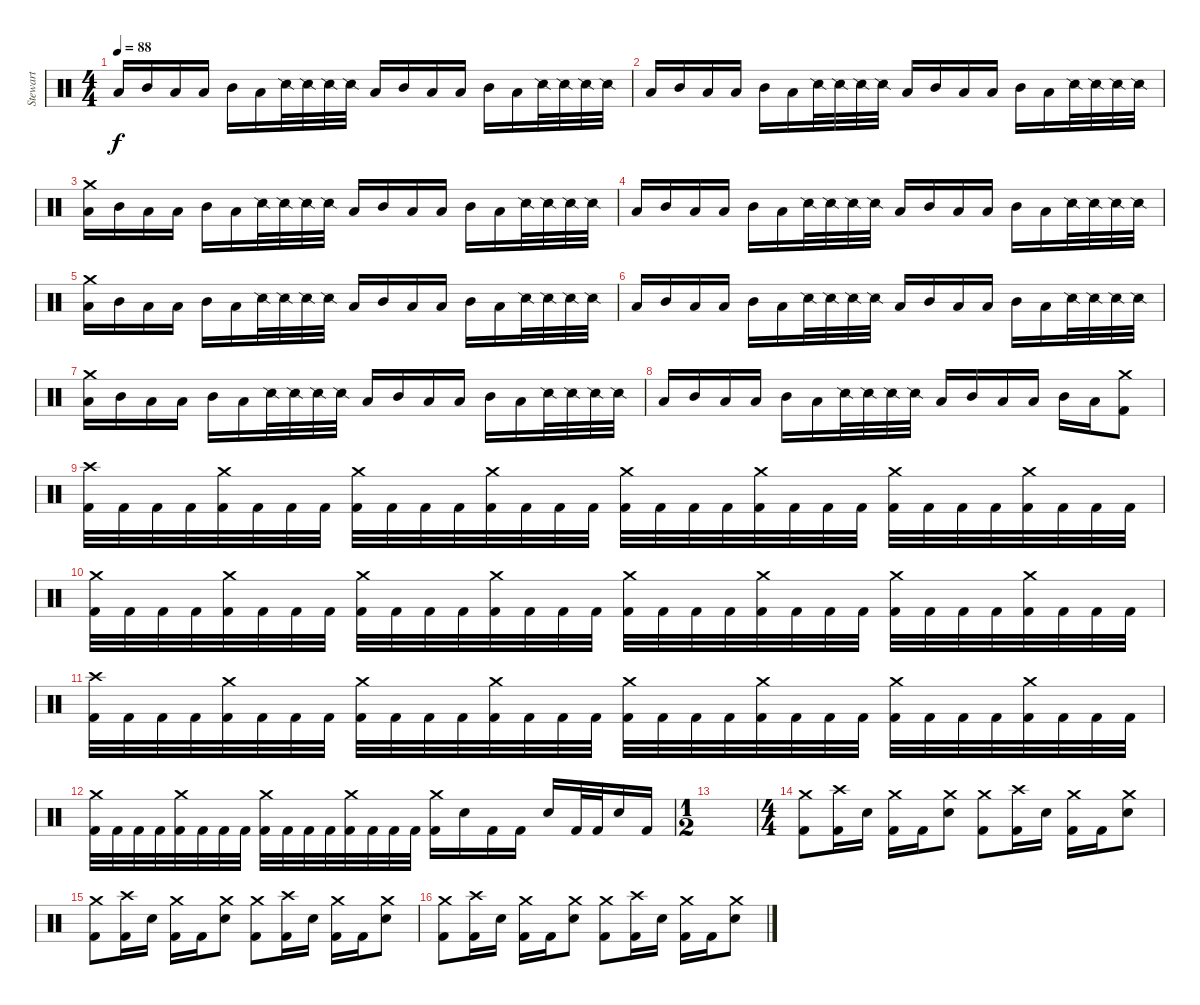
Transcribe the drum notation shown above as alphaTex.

\track ("Stewart" "Stewart") {instrument percussion}
\staff {score}
\articulation defaults
\ts (4 4)
\tempo 88
\clef neutral
\ks c "Low Tom (hit)".16{dy f} "Mid Tom (hit)".16 "Low Tom (hit)".16 "Low Tom (hit)".16 "Mid Tom (hit)".16 "Low Tom (hit)".16 "Snare (side stick) 2".32 "Snare (side stick) 2".32 "Snare (side stick) 2".32 "Snare (side stick) 2".32 "Low Tom (hit)".16 "Mid Tom (hit)".16 "Low Tom (hit)".16 "Low Tom (hit)".16 "Mid Tom (hit)".16 "Low Tom (hit)".16 "Snare (side stick) 2".32 "Snare (side stick) 2".32 "Snare (side stick) 2".32 "Snare (side stick) 2".32
|
"Low Tom (hit)".16 "Mid Tom (hit)".16 "Low Tom (hit)".16 "Low Tom (hit)".16 "Mid Tom (hit)".16 "Low Tom (hit)".16 "Snare (side stick) 2".32 "Snare (side stick) 2".32 "Snare (side stick) 2".32 "Snare (side stick) 2".32 "Low Tom (hit)".16 "Mid Tom (hit)".16 "Low Tom (hit)".16 "Low Tom (hit)".16 "Mid Tom (hit)".16 "Low Tom (hit)".16 "Snare (side stick) 2".32 "Snare (side stick) 2".32 "Snare (side stick) 2".32 "Snare (side stick) 2".32 |
("Crash medium (hit)" "Low Tom (hit)").16 "Mid Tom (hit)".16 "Low Tom (hit)".16 "Low Tom (hit)".16 "Mid Tom (hit)".16 "Low Tom (hit)".16 "Snare (side stick) 2".32 "Snare (side stick) 2".32 "Snare (side stick) 2".32 "Snare (side stick) 2".32 "Low Tom (hit)".16 "Mid Tom (hit)".16 "Low Tom (hit)".16 "Low Tom (hit)".16 "Mid Tom (hit)".16 "Low Tom (hit)".16 "Snare (side stick) 2".32 "Snare (side stick) 2".32 "Snare (side stick) 2".32 "Snare (side stick) 2".32 |
"Low Tom (hit)".16 "Mid Tom (hit)".16 "Low Tom (hit)".16 "Low Tom (hit)".16 "Mid Tom (hit)".16 "Low Tom (hit)".16 "Snare (side stick) 2".32 "Snare (side stick) 2".32 "Snare (side stick) 2".32 "Snare (side stick) 2".32 "Low Tom (hit)".16 "Mid Tom (hit)".16 "Low Tom (hit)".16 "Low Tom (hit)".16 "Mid Tom (hit)".16 "Low Tom (hit)".16 "Snare (side stick) 2".32 "Snare (side stick) 2".32 "Snare (side stick) 2".32 "Snare (side stick) 2".32 |
("Crash medium (hit)" "Low Tom (hit)").16 "Mid Tom (hit)".16 "Low Tom (hit)".16 "Low Tom (hit)".16 "Mid Tom (hit)".16 "Low Tom (hit)".16 "Snare (side stick) 2".32 "Snare (side stick) 2".32 "Snare (side stick) 2".32 "Snare (side stick) 2".32 "Low Tom (hit)".16 "Mid Tom (hit)".16 "Low Tom (hit)".16 "Low Tom (hit)".16 "Mid Tom (hit)".16 "Low Tom (hit)".16 "Snare (side stick) 2".32 "Snare (side stick) 2".32 "Snare (side stick) 2".32 "Snare (side stick) 2".32 |
"Low Tom (hit)".16 "Mid Tom (hit)".16 "Low Tom (hit)".16 "Low Tom (hit)".16 "Mid Tom (hit)".16 "Low Tom (hit)".16 "Snare (side stick) 2".32 "Snare (side stick) 2".32 "Snare (side stick) 2".32 "Snare (side stick) 2".32 "Low Tom (hit)".16 "Mid Tom (hit)".16 "Low Tom (hit)".16 "Low Tom (hit)".16 "Mid Tom (hit)".16 "Low Tom (hit)".16 "Snare (side stick) 2".32 "Snare (side stick) 2".32 "Snare (side stick) 2".32 "Snare (side stick) 2".32 |
("Crash medium (hit)" "Low Tom (hit)").16 "Mid Tom (hit)".16 "Low Tom (hit)".16 "Low Tom (hit)".16 "Mid Tom (hit)".16 "Low Tom (hit)".16 "Snare (side stick) 2".32 "Snare (side stick) 2".32 "Snare (side stick) 2".32 "Snare (side stick) 2".32 "Low Tom (hit)".16 "Mid Tom (hit)".16 "Low Tom (hit)".16 "Low Tom (hit)".16 "Mid Tom (hit)".16 "Low Tom (hit)".16 "Snare (side stick) 2".32 "Snare (side stick) 2".32 "Snare (side stick) 2".32 "Snare (side stick) 2".32 |
"Low Tom (hit)".16 "Mid Tom (hit)".16 "Low Tom (hit)".16 "Low Tom (hit)".16 "Mid Tom (hit)".16 "Low Tom (hit)".16 "Snare (side stick) 2".32 "Snare (side stick) 2".32 "Snare (side stick) 2".32 "Snare (side stick) 2".32 "Low Tom (hit)".16 "Mid Tom (hit)".16 "Low Tom (hit)".16 "Low Tom (hit)".16 "Mid Tom (hit)".16 "Low Tom (hit)".16 ("Crash medium (hit)" "Kick (hit) 2").8 |
("Crash high (hit)" "Kick (hit) 2").32 "Kick (hit) 2".32 "Kick (hit) 2".32 "Kick (hit) 2".32 ("Crash medium (hit)" "Kick (hit) 2").32 "Kick (hit) 2".32 "Kick (hit) 2".32 "Kick (hit) 2".32 ("Crash medium (hit)" "Kick (hit) 2").32 "Kick (hit) 2".32 "Kick (hit) 2".32 "Kick (hit) 2".32 ("Crash medium (hit)" "Kick (hit) 2").32 "Kick (hit) 2".32 "Kick (hit) 2".32 "Kick (hit) 2".32 ("Crash medium (hit)" "Kick (hit) 2").32 "Kick (hit) 2".32 "Kick (hit) 2".32 "Kick (hit) 2".32 ("Crash medium (hit)" "Kick (hit) 2").32 "Kick (hit) 2".32 "Kick (hit) 2".32 "Kick (hit) 2".32 ("Crash medium (hit)" "Kick (hit) 2").32 "Kick (hit) 2".32 "Kick (hit) 2".32 "Kick (hit) 2".32 ("Crash medium (hit)" "Kick (hit) 2").32 "Kick (hit) 2".32 "Kick (hit) 2".32 "Kick (hit) 2".32 |
("Crash medium (hit)" "Kick (hit) 2").32 "Kick (hit) 2".32 "Kick (hit) 2".32 "Kick (hit) 2".32 ("Crash medium (hit)" "Kick (hit) 2").32 "Kick (hit) 2".32 "Kick (hit) 2".32 "Kick (hit) 2".32 ("Crash medium (hit)" "Kick (hit) 2").32 "Kick (hit) 2".32 "Kick (hit) 2".32 "Kick (hit) 2".32 ("Crash medium (hit)" "Kick (hit) 2").32 "Kick (hit) 2".32 "Kick (hit) 2".32 "Kick (hit) 2".32 ("Crash medium (hit)" "Kick (hit) 2").32 "Kick (hit) 2".32 "Kick (hit) 2".32 "Kick (hit) 2".32 ("Crash medium (hit)" "Kick (hit) 2").32 "Kick (hit) 2".32 "Kick (hit) 2".32 "Kick (hit) 2".32 ("Crash medium (hit)" "Kick (hit) 2").32 "Kick (hit) 2".32 "Kick (hit) 2".32 "Kick (hit) 2".32 ("Crash medium (hit)" "Kick (hit) 2").32 "Kick (hit) 2".32 "Kick (hit) 2".32 "Kick (hit) 2".32 |
("Crash high (hit)" "Kick (hit) 2").32 "Kick (hit) 2".32 "Kick (hit) 2".32 "Kick (hit) 2".32 ("Crash medium (hit)" "Kick (hit) 2").32 "Kick (hit) 2".32 "Kick (hit) 2".32 "Kick (hit) 2".32 ("Crash medium (hit)" "Kick (hit) 2").32 "Kick (hit) 2".32 "Kick (hit) 2".32 "Kick (hit) 2".32 ("Crash medium (hit)" "Kick (hit) 2").32 "Kick (hit) 2".32 "Kick (hit) 2".32 "Kick (hit) 2".32 ("Crash medium (hit)" "Kick (hit) 2").32 "Kick (hit) 2".32 "Kick (hit) 2".32 "Kick (hit) 2".32 ("Crash medium (hit)" "Kick (hit) 2").32 "Kick (hit) 2".32 "Kick (hit) 2".32 "Kick (hit) 2".32 ("Crash medium (hit)" "Kick (hit) 2").32 "Kick (hit) 2".32 "Kick (hit) 2".32 "Kick (hit) 2".32 ("Crash medium (hit)" "Kick (hit) 2").32 "Kick (hit) 2".32 "Kick (hit) 2".32 "Kick (hit) 2".32 |
("Crash medium (hit)" "Kick (hit) 2").32 "Kick (hit) 2".32 "Kick (hit) 2".32 "Kick (hit) 2".32 ("Crash medium (hit)" "Kick (hit) 2").32 "Kick (hit) 2".32 "Kick (hit) 2".32 "Kick (hit) 2".32 ("Crash medium (hit)" "Kick (hit) 2").32 "Kick (hit) 2".32 "Kick (hit) 2".32 "Kick (hit) 2".32 ("Crash medium (hit)" "Kick (hit) 2").32 "Kick (hit) 2".32 "Kick (hit) 2".32 "Kick (hit) 2".32 ("Crash medium (hit)" "Kick (hit) 2").16 "Electric Snare (hit)".16 "Kick (hit) 2".16 "Kick (hit) 2".16 "Electric Snare (hit)".16 "Kick (hit) 2".32 "Kick (hit) 2".32 "Electric Snare (hit)".16 "Kick (hit) 2".16 |
\ts (1 2)
|
\ts (4 4)
("Crash medium (hit)" "Kick (hit) 2").8 ("Crash high (hit)" "Kick (hit) 2").16 "Electric Snare (hit)".16 ("Crash medium (hit)" "Kick (hit) 2").16 "Kick (hit) 2".16 ("Crash medium (hit)" "Electric Snare (hit)").8 ("Crash medium (hit)" "Kick (hit) 2").8 ("Crash high (hit)" "Kick (hit) 2").16 "Electric Snare (hit)".16 ("Crash medium (hit)" "Kick (hit) 2").16 "Kick (hit) 2".16 ("Crash medium (hit)" "Electric Snare (hit)").8 |
("Crash medium (hit)" "Kick (hit) 2").8 ("Crash high (hit)" "Kick (hit) 2").16 "Electric Snare (hit)".16 ("Crash medium (hit)" "Kick (hit) 2").16 "Kick (hit) 2".16 ("Crash medium (hit)" "Electric Snare (hit)").8 ("Crash medium (hit)" "Kick (hit) 2").8 ("Crash high (hit)" "Kick (hit) 2").16 "Electric Snare (hit)".16 ("Crash medium (hit)" "Kick (hit) 2").16 "Kick (hit) 2".16 ("Crash medium (hit)" "Electric Snare (hit)").8 |
("Crash medium (hit)" "Kick (hit) 2").8 ("Crash high (hit)" "Kick (hit) 2").16 "Electric Snare (hit)".16 ("Crash medium (hit)" "Kick (hit) 2").16 "Kick (hit) 2".16 ("Crash medium (hit)" "Electric Snare (hit)").8 ("Crash medium (hit)" "Kick (hit) 2").8 ("Crash high (hit)" "Kick (hit) 2").16 "Electric Snare (hit)".16 ("Crash medium (hit)" "Kick (hit) 2").16 "Kick (hit) 2".16 ("Crash medium (hit)" "Electric Snare (hit)").8
